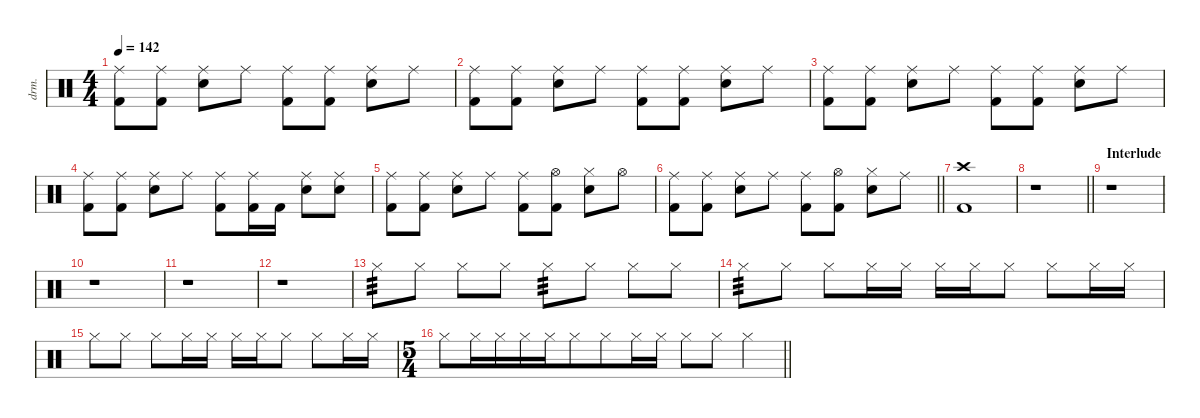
\defaultSystemsLayout 4
\hideDynamics
\bracketExtendMode nobrackets
\otherSystemsTrackNameOrientation horizontal
\track ("Drums" "drm.") {defaultSystemsLayout 4 instrument percussion}
\staff {score}
\articulation defaults
\ts (4 4)
\tempo 142
\clef neutral
\ks c
("Ride (middle)" "Kick (hit) 2").8{dy f beam Down} ("Ride (middle)" "Kick (hit) 2").8{beam Down} ("Ride (middle)" "Snare (hit) 2").8{beam Down} "Ride (middle)".8{beam Down} ("Ride (middle)" "Kick (hit) 2").8{beam Down} ("Ride (middle)" "Kick (hit) 2").8{beam Down} ("Ride (middle)" "Snare (hit) 2").8{beam Down} "Ride (middle)".8{beam Down} |
("Ride (middle)" "Kick (hit) 2").8{beam Down} ("Ride (middle)" "Kick (hit) 2").8{beam Down} ("Ride (middle)" "Snare (hit) 2").8{beam Down} "Ride (middle)".8{beam Down} ("Ride (middle)" "Kick (hit) 2").8{beam Down} ("Ride (middle)" "Kick (hit) 2").8{beam Down} ("Ride (middle)" "Snare (hit) 2").8{beam Down} "Ride (middle)".8{beam Down} |
("Ride (middle)" "Kick (hit) 2").8{beam Down} ("Ride (middle)" "Kick (hit) 2").8{beam Down} ("Ride (middle)" "Snare (hit) 2").8{beam Down} "Ride (middle)".8{beam Down} ("Ride (middle)" "Kick (hit) 2").8{beam Down} ("Ride (middle)" "Kick (hit) 2").8{beam Down} ("Ride (middle)" "Snare (hit) 2").8{beam Down} "Ride (middle)".8{beam Down} |
("Ride (middle)" "Kick (hit) 2").8{beam Down} ("Ride (middle)" "Kick (hit) 2").8{beam Down} ("Ride (middle)" "Snare (hit) 2").8{beam Down} "Ride (middle)".8{beam Down} ("Ride (middle)" "Kick (hit) 2").8{beam Down} ("Ride (middle)" "Kick (hit) 2").16{beam Down} "Kick (hit) 2".16{beam Down} ("Ride (middle)" "Snare (hit) 2").8{beam Down} ("Ride (middle)" "Snare (hit) 2").8{beam Down} |
("Ride (middle)" "Kick (hit) 2").8{beam Down} ("Ride (middle)" "Kick (hit) 2").8{beam Down} ("Ride (middle)" "Snare (hit) 2").8{beam Down} "Ride (middle)".8{beam Down} ("Ride (middle)" "Kick (hit) 2").8{beam Down} ("Hi-Hat (open)" "Kick (hit) 2").8{beam Down} ("Hi-Hat (closed)" "Snare (hit) 2").8{beam Down} "Hi-Hat (open)".8{beam Down} |
\barLineRight lightlight
("Ride (middle)" "Kick (hit) 2").8{beam Down} ("Ride (middle)" "Kick (hit) 2").8{beam Down} ("Ride (middle)" "Snare (hit) 2").8{beam Down} "Ride (middle)".8{beam Down} ("Ride (middle)" "Kick (hit) 2").8{beam Down} ("Hi-Hat (open)" "Kick (hit) 2").8{beam Down} ("Hi-Hat (closed)" "Snare (hit) 2").8{beam Down} "Ride (middle)".8{beam Down} |
("Crash high (hit)" "Kick (hit) 2").1{beam Down} |
\barLineRight lightlight
r.1{beam Down} |
\section ("" "Interlude")
r.1{beam Down} |
r.1{beam Down} |
r.1{beam Down} |
r.1{beam Down} |
"Hi-Hat (closed)".8{tp 3 dy p beam Down} "Hi-Hat (closed)".8{beam Down} "Hi-Hat (closed)".8{beam Down} "Hi-Hat (closed)".8{beam Down} "Hi-Hat (closed)".8{tp 3 beam Down} "Hi-Hat (closed)".8{beam Down} "Hi-Hat (closed)".8{beam Down} "Hi-Hat (closed)".8{beam Down} |
"Hi-Hat (closed)".8{tp 3 beam Down} "Hi-Hat (closed)".8{beam Down} "Hi-Hat (closed)".8{beam Down} "Hi-Hat (closed)".16{beam Down} "Hi-Hat (closed)".16{beam Down} "Hi-Hat (closed)".16{beam Down} "Hi-Hat (closed)".16{beam Down} "Hi-Hat (closed)".8{beam Down} "Hi-Hat (closed)".8{beam Down} "Hi-Hat (closed)".16{beam Down} "Hi-Hat (closed)".16{beam Down} |
"Hi-Hat (closed)".8{beam Down} "Hi-Hat (closed)".8{beam Down} "Hi-Hat (closed)".8{beam Down} "Hi-Hat (closed)".16{beam Down} "Hi-Hat (closed)".16{beam Down} "Hi-Hat (closed)".16{beam Down} "Hi-Hat (closed)".16{beam Down} "Hi-Hat (closed)".8{beam Down} "Hi-Hat (closed)".8{beam Down} "Hi-Hat (closed)".16{beam Down} "Hi-Hat (closed)".16{beam Down} |
\ts (5 4)
\beaming (8 6 4)
\barLineRight lightlight "Hi-Hat (closed)".8{beam Down} "Hi-Hat (closed)".16{beam Down} "Hi-Hat (closed)".16{beam Down} "Hi-Hat (closed)".16{beam Down} "Hi-Hat (closed)".16{beam Down} "Hi-Hat (closed)".8{beam Down} "Hi-Hat (closed)".8{beam Down} "Hi-Hat (closed)".16{beam Down} "Hi-Hat (closed)".16{beam Down} "Hi-Hat (closed)".8{beam Down} "Hi-Hat (closed)".8{beam Down} "Hi-Hat (closed)".4{beam Down}
